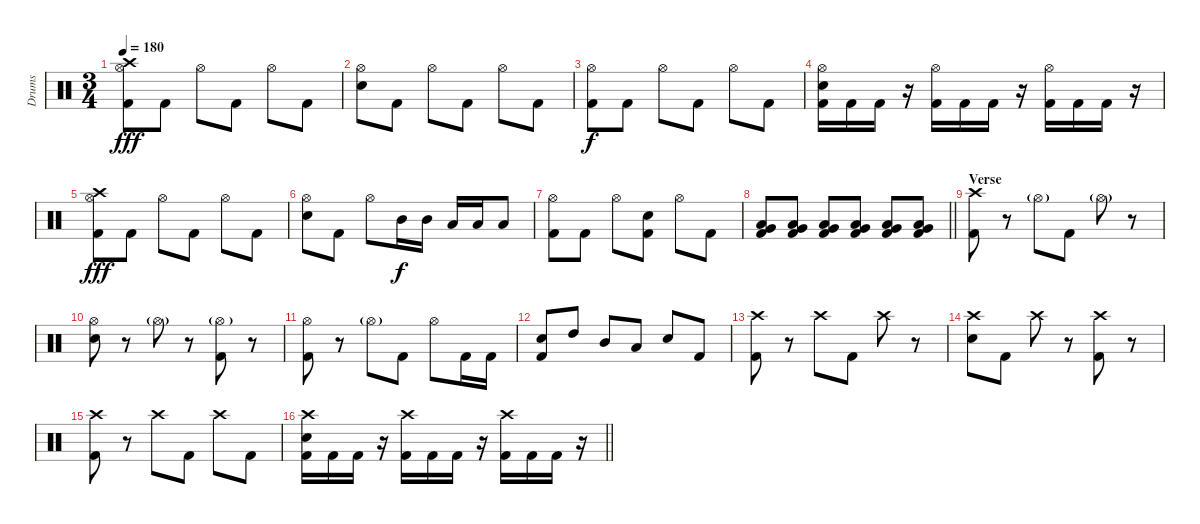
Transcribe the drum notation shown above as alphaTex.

\track ("Drums" "Drums") {instrument percussion}
\staff {score}
\articulation defaults
\ts (3 4)
\tempo 180
\clef neutral
\ks c
("Crash high (hit)" "Hi-Hat (open)" "Kick (hit) 2").8{dy fff} "Kick (hit) 2".8 "Hi-Hat (open)".8 "Kick (hit) 2".8 "Hi-Hat (open)".8 "Kick (hit) 2".8 |
("Hi-Hat (open)" "Electric Snare (hit)").8 "Kick (hit) 2".8 "Hi-Hat (open)".8 "Kick (hit) 2".8 "Hi-Hat (open)".8 "Kick (hit) 2".8 |
("Hi-Hat (open)" "Kick (hit) 2").8{dy f} "Kick (hit) 2".8 "Hi-Hat (open)".8 "Kick (hit) 2".8 "Hi-Hat (open)".8 "Kick (hit) 2".8 |
("Hi-Hat (open)" "Electric Snare (hit)" "Kick (hit) 2").16 "Kick (hit) 2".16 "Kick (hit) 2".16 r.16 ("Hi-Hat (open)" "Kick (hit) 2").16 "Kick (hit) 2".16 "Kick (hit) 2".16 r.16 ("Hi-Hat (open)" "Kick (hit) 2").16 "Kick (hit) 2".16 "Kick (hit) 2".16 r.16 |
("Crash high (hit)" "Hi-Hat (open)" "Kick (hit) 2").8{dy fff} "Kick (hit) 2".8 "Hi-Hat (open)".8 "Kick (hit) 2".8 "Hi-Hat (open)".8 "Kick (hit) 2".8 |
("Hi-Hat (open)" "Electric Snare (hit)").8 "Kick (hit) 2".8 "Hi-Hat (open)".8 "Mid Tom (hit)".16{dy f} "Mid Tom (hit)".16 "Low Tom (hit)".16 "Low Tom (hit)".16 "Low Floor Tom (hit)".8 |
("Hi-Hat (open)" "Kick (hit) 2").8 "Kick (hit) 2".8 "Hi-Hat (open)".8 ("Electric Snare (hit)" "Kick (hit) 2").8 "Hi-Hat (open)".8 "Kick (hit) 2".8 |
\barLineRight lightlight
("Low Floor Tom (hit)" "Very Low Tom (hit)" "Kick (hit) 2").8 ("Low Floor Tom (hit)" "Very Low Tom (hit)" "Kick (hit) 2").8 ("Low Floor Tom (hit)" "Very Low Tom (hit)" "Kick (hit) 2").8 ("Low Floor Tom (hit)" "Very Low Tom (hit)" "Kick (hit) 2").8 ("Low Floor Tom (hit)" "Very Low Tom (hit)" "Kick (hit) 2").8 ("Low Floor Tom (hit)" "Very Low Tom (hit)" "Kick (hit) 2").8 |
\section ("" "Verse")
("Crash high (hit)" "Kick (hit) 2").8 r.8 "Hi-Hat (open)"{g}.8 "Kick (hit) 2".8 "Hi-Hat (open)"{g}.8 r.8 |
("Hi-Hat (open)" "Electric Snare (hit)").8 r.8 "Hi-Hat (open)"{g}.8 r.8 ("Hi-Hat (open)"{g} "Kick (hit) 2").8 r.8 |
("Hi-Hat (open)" "Kick (hit) 2").8 r.8 "Hi-Hat (open)"{g}.8 "Kick (hit) 2".8 "Hi-Hat (open)".8 "Kick (hit) 2".16 "Kick (hit) 2".16 |
("Electric Snare (hit)" "Kick (hit) 2").8 "High Tom (hit)".8 "Mid Tom (hit)".8 "Low Tom (hit)".8 "Electric Snare (hit)".8 "Kick (hit) 2".8 |
("Crash high (hit)" "Kick (hit) 2").8 r.8 "Crash high (hit)".8 "Kick (hit) 2".8 "Crash high (hit)".8 r.8 |
("Crash high (hit)" "Electric Snare (hit)").8 "Kick (hit) 2".8 "Crash high (hit)".8 r.8 ("Crash high (hit)" "Kick (hit) 2").8 r.8 |
("Crash high (hit)" "Kick (hit) 2").8 r.8 "Crash high (hit)".8 "Kick (hit) 2".8 "Crash high (hit)".8 "Kick (hit) 2".8 |
\barLineRight lightlight
("Crash high (hit)" "Electric Snare (hit)" "Kick (hit) 2").16 "Kick (hit) 2".16 "Kick (hit) 2".16 r.16 ("Crash high (hit)" "Kick (hit) 2").16 "Kick (hit) 2".16 "Kick (hit) 2".16 r.16 ("Crash high (hit)" "Kick (hit) 2").16 "Kick (hit) 2".16 "Kick (hit) 2".16 r.16
